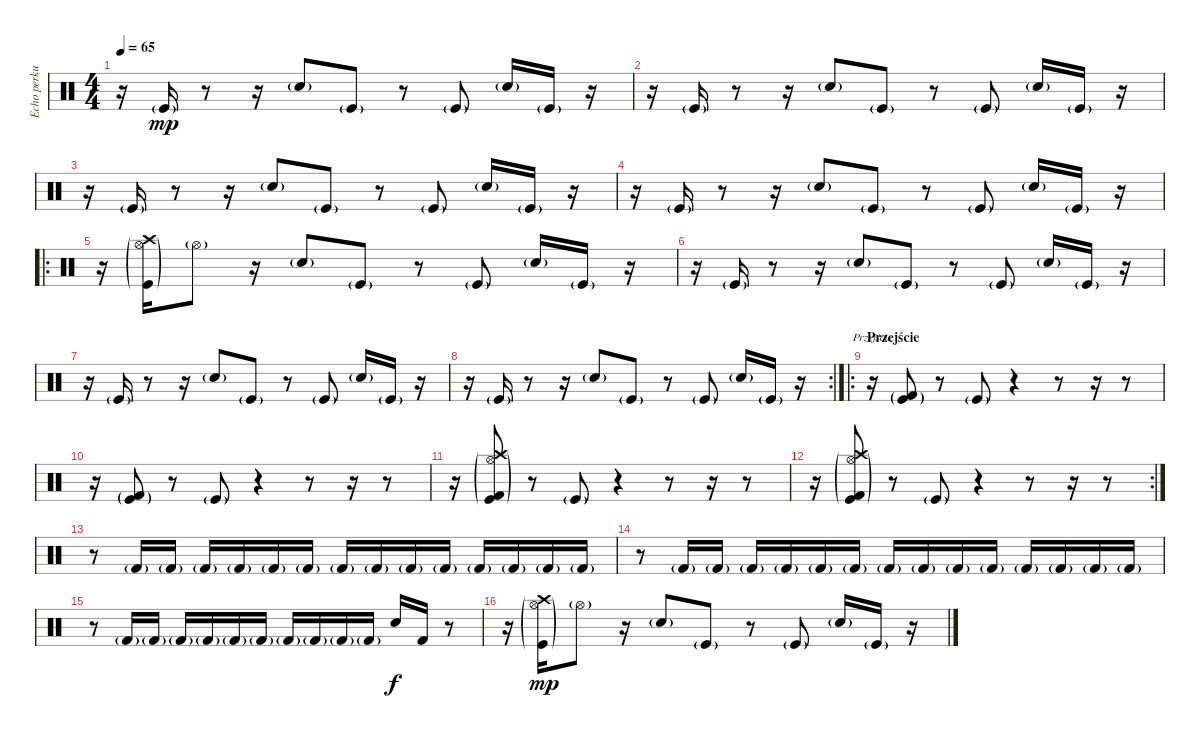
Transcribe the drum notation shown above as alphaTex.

\track ("Echo perkusji 1" "Echo perku") {instrument percussion}
\staff {score}
\articulation defaults
\chord ("Przejście")
\ts (4 4)
\tempo 65
\clef neutral
\ks c
r.16{dy mp} "Kick (hit)"{g}.16 r.8 r.16 "Snare (hit) 2"{g}.8 "Kick (hit)"{g}.8 r.8 "Kick (hit)"{g}.8 "Snare (hit) 2"{g}.16 "Kick (hit)"{g}.16 r.16 |
r.16 "Kick (hit)"{g}.16 r.8 r.16 "Snare (hit) 2"{g}.8 "Kick (hit)"{g}.8 r.8 "Kick (hit)"{g}.8 "Snare (hit) 2"{g}.16 "Kick (hit)"{g}.16 r.16 |
r.16 "Kick (hit)"{g}.16 r.8 r.16 "Snare (hit) 2"{g}.8 "Kick (hit)"{g}.8 r.8 "Kick (hit)"{g}.8 "Snare (hit) 2"{g}.16 "Kick (hit)"{g}.16 r.16 |
r.16 "Kick (hit)"{g}.16 r.8 r.16 "Snare (hit) 2"{g}.8 "Kick (hit)"{g}.8 r.8 "Kick (hit)"{g}.8 "Snare (hit) 2"{g}.16 "Kick (hit)"{g}.16 r.16 |
\ro
r.16 ("Kick (hit)"{g} "Hi-Hat (open)"{g} "Crash high (hit)"{g}).16 "Hi-Hat (open)"{g}.8 r.16 "Snare (hit) 2"{g}.8 "Kick (hit)"{g}.8 r.8 "Kick (hit)"{g}.8 "Snare (hit) 2"{g}.16 "Kick (hit)"{g}.16 r.16 |
r.16 "Kick (hit)"{g}.16 r.8 r.16 "Snare (hit) 2"{g}.8 "Kick (hit)"{g}.8 r.8 "Kick (hit)"{g}.8 "Snare (hit) 2"{g}.16 "Kick (hit)"{g}.16 r.16 |
r.16 "Kick (hit)"{g}.16 r.8 r.16 "Snare (hit) 2"{g}.8 "Kick (hit)"{g}.8 r.8 "Kick (hit)"{g}.8 "Snare (hit) 2"{g}.16 "Kick (hit)"{g}.16 r.16 |
\rc 2
r.16 "Kick (hit)"{g}.16 r.8 r.16 "Snare (hit) 2"{g}.8 "Kick (hit)"{g}.8 r.8 "Kick (hit)"{g}.8 "Snare (hit) 2"{g}.16 "Kick (hit)"{g}.16 r.16 |
\ro
\section ("" "Przejście")
r.16{ch "Przejście"} ("Kick (hit)"{g} "Kick (hit) 2"{g}).8 r.8 "Kick (hit)"{g}.8 r.4 r.8 r.16 r.8 |
r.16 ("Kick (hit)"{g} "Kick (hit) 2"{g}).8 r.8 "Kick (hit)"{g}.8 r.4 r.8 r.16 r.8 |
r.16 ("Kick (hit)"{g} "Kick (hit) 2"{g} "Hi-Hat (open)"{g} "Crash high (hit)"{g}).8 r.8 "Kick (hit)"{g}.8 r.4 r.8 r.16 r.8 |
\rc 2
r.16 ("Kick (hit)"{g} "Kick (hit) 2"{g} "Hi-Hat (open)"{g} "Crash high (hit)"{g}).8 r.8 "Kick (hit)"{g}.8 r.4 r.8 r.16 r.8 |
r.8 "Kick (hit) 2"{g}.16{volume 15} "Kick (hit) 2"{g}.16{volume 14} "Kick (hit) 2"{g}.16{volume 13} "Kick (hit) 2"{g}.16{volume 12} "Kick (hit) 2"{g}.16{volume 11} "Kick (hit) 2"{g}.16{volume 10} "Kick (hit) 2"{g}.16{volume 9} "Kick (hit) 2"{g}.16{volume 8} "Kick (hit) 2"{g}.16{volume 7} "Kick (hit) 2"{g}.16{volume 6} "Kick (hit) 2"{g}.16{volume 5} "Kick (hit) 2"{g}.16{volume 4} "Kick (hit) 2"{g}.16{volume 3} "Kick (hit) 2"{g}.16{volume 2} |
r.8{volume 13} "Kick (hit) 2"{g}.16{volume 15} "Kick (hit) 2"{g}.16{volume 14} "Kick (hit) 2"{g}.16{volume 13} "Kick (hit) 2"{g}.16{volume 12} "Kick (hit) 2"{g}.16{volume 11} "Kick (hit) 2"{g}.16{volume 10} "Kick (hit) 2"{g}.16{volume 9} "Kick (hit) 2"{g}.16{volume 8} "Kick (hit) 2"{g}.16{volume 7} "Kick (hit) 2"{g}.16{volume 6} "Kick (hit) 2"{g}.16{volume 5} "Kick (hit) 2"{g}.16{volume 4} "Kick (hit) 2"{g}.16{volume 3} "Kick (hit) 2"{g}.16{volume 2} |
r.8{volume 16} "Kick (hit) 2"{g}.16{volume 15} "Kick (hit) 2"{g}.16{volume 14} "Kick (hit) 2"{g}.16{volume 13} "Kick (hit) 2"{g}.16{volume 12} "Kick (hit) 2"{g}.16{volume 11} "Kick (hit) 2"{g}.16{volume 10} "Kick (hit) 2"{g}.16{volume 9} "Kick (hit) 2"{g}.16{volume 8} "Kick (hit) 2"{g}.16{volume 7} "Kick (hit) 2"{g}.16{volume 6} "Snare (hit) 2".16{dy f volume 13} "Kick (hit) 2".16 r.8 |
r.16 ("Kick (hit)"{g} "Hi-Hat (open)"{g} "Crash high (hit)"{g}).16{dy mp} "Hi-Hat (open)"{g}.8 r.16 "Snare (hit) 2"{g}.8 "Kick (hit)"{g}.8 r.8 "Kick (hit)"{g}.8 "Snare (hit) 2"{g}.16 "Kick (hit)"{g}.16 r.16
